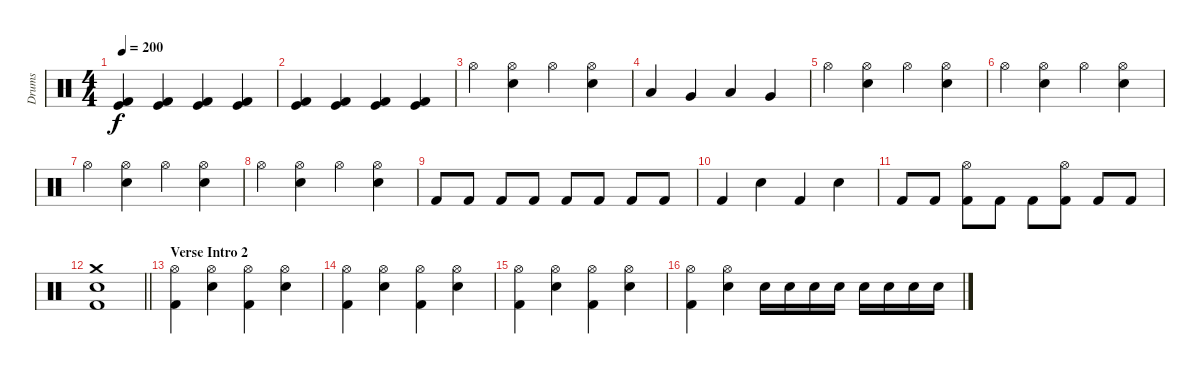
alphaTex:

\track ("Drums" "Drums") {instrument percussion}
\staff {score}
\articulation defaults
\ts (4 4)
\tempo 200
\clef neutral
\ks c
("Kick (hit)" "Kick (hit) 2").4{dy f} ("Kick (hit)" "Kick (hit) 2").4 ("Kick (hit)" "Kick (hit) 2").4 ("Kick (hit)" "Kick (hit) 2").4 |
("Kick (hit)" "Kick (hit) 2").4 ("Kick (hit)" "Kick (hit) 2").4 ("Kick (hit)" "Kick (hit) 2").4 ("Kick (hit)" "Kick (hit) 2").4 |
"Hi-Hat (open)".4 ("Hi-Hat (open)" "Snare (hit) 2").4 "Hi-Hat (open)".4 ("Hi-Hat (open)" "Snare (hit) 2").4 |
"Low Floor Tom (hit)".4 "Very Low Tom (hit)".4 "Low Floor Tom (hit)".4 "Very Low Tom (hit)".4 |
"Hi-Hat (open)".4 ("Hi-Hat (open)" "Snare (hit) 2").4 "Hi-Hat (open)".4 ("Hi-Hat (open)" "Snare (hit) 2").4 |
"Hi-Hat (open)".4 ("Hi-Hat (open)" "Snare (hit) 2").4 "Hi-Hat (open)".4 ("Hi-Hat (open)" "Snare (hit) 2").4 |
"Hi-Hat (open)".4 ("Hi-Hat (open)" "Snare (hit) 2").4 "Hi-Hat (open)".4 ("Hi-Hat (open)" "Snare (hit) 2").4 |
"Hi-Hat (open)".4 ("Hi-Hat (open)" "Snare (hit) 2").4 "Hi-Hat (open)".4 ("Hi-Hat (open)" "Snare (hit) 2").4 |
"Kick (hit) 2".8 "Kick (hit) 2".8 "Kick (hit) 2".8 "Kick (hit) 2".8 "Kick (hit) 2".8 "Kick (hit) 2".8 "Kick (hit) 2".8 "Kick (hit) 2".8 |
"Kick (hit) 2".4 "Snare (hit) 2".4 "Kick (hit) 2".4 "Snare (hit) 2".4 |
"Kick (hit) 2".8 "Kick (hit) 2".8 ("Hi-Hat (open)" "Kick (hit) 2").8 "Kick (hit) 2".8 "Kick (hit) 2".8 ("Hi-Hat (open)" "Kick (hit) 2").8 "Kick (hit) 2".8 "Kick (hit) 2".8 |
\barLineRight lightlight
("Crash medium (hit)" "Kick (hit) 2" "Snare (hit) 2").1 |
\section ("" "Verse Intro 2")
("Hi-Hat (open)" "Kick (hit) 2").4 ("Hi-Hat (open)" "Snare (hit) 2").4 ("Hi-Hat (open)" "Kick (hit) 2").4 ("Hi-Hat (open)" "Snare (hit) 2").4 |
("Hi-Hat (open)" "Kick (hit) 2").4 ("Hi-Hat (open)" "Snare (hit) 2").4 ("Hi-Hat (open)" "Kick (hit) 2").4 ("Hi-Hat (open)" "Snare (hit) 2").4 |
("Hi-Hat (open)" "Kick (hit) 2").4 ("Hi-Hat (open)" "Snare (hit) 2").4 ("Hi-Hat (open)" "Kick (hit) 2").4 ("Hi-Hat (open)" "Snare (hit) 2").4 |
("Hi-Hat (open)" "Kick (hit) 2").4 ("Hi-Hat (open)" "Snare (hit) 2").4 "Snare (hit) 2".16 "Snare (hit) 2".16 "Snare (hit) 2".16 "Snare (hit) 2".16 "Snare (hit) 2".16 "Snare (hit) 2".16 "Snare (hit) 2".16 "Snare (hit) 2".16
